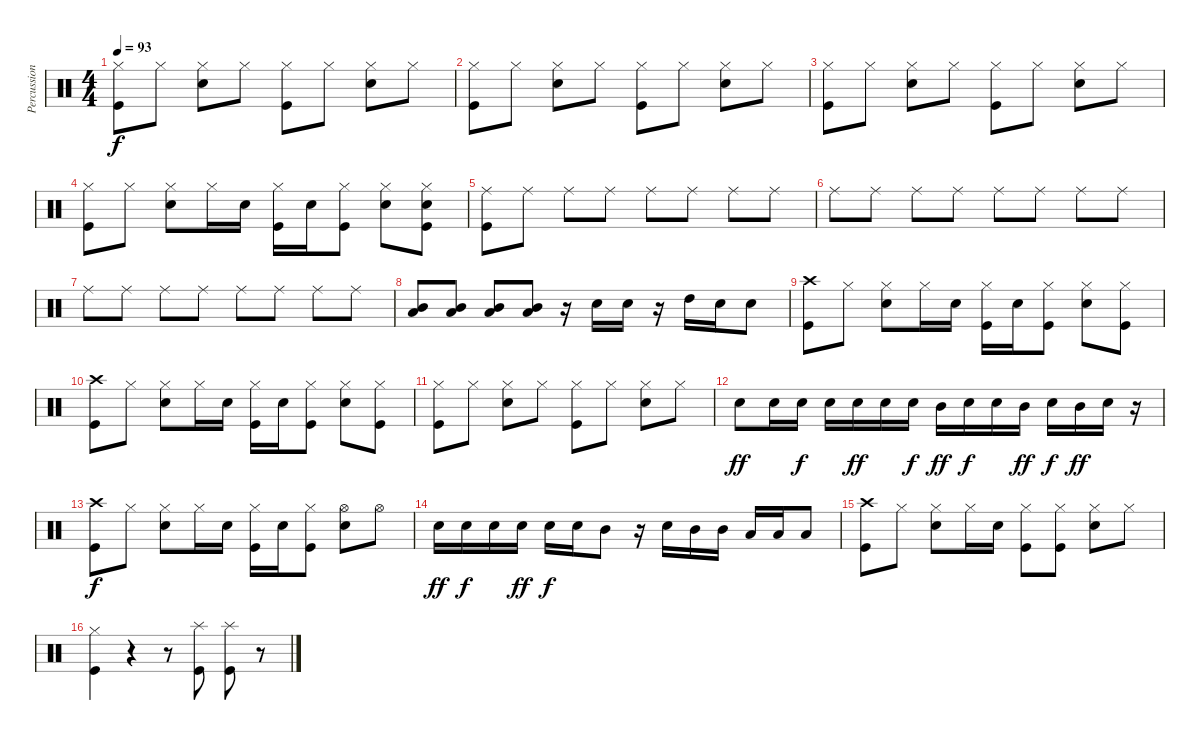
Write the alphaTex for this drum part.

\track ("Percussion" "Percussion") {instrument percussion}
\staff {score}
\articulation defaults
\ts (4 4)
\tempo 93
\clef neutral
\ks c
("Hi-Hat (closed)" "Kick (hit)").8{dy f} "Hi-Hat (closed)".8 ("Hi-Hat (closed)" "Snare (hit) 2").8 "Hi-Hat (closed)".8 ("Hi-Hat (closed)" "Kick (hit)").8 "Hi-Hat (closed)".8 ("Hi-Hat (closed)" "Snare (hit) 2").8 "Hi-Hat (closed)".8 |
("Hi-Hat (closed)" "Kick (hit)").8 "Hi-Hat (closed)".8 ("Hi-Hat (closed)" "Snare (hit) 2").8 "Hi-Hat (closed)".8 ("Hi-Hat (closed)" "Kick (hit)").8 "Hi-Hat (closed)".8 ("Hi-Hat (closed)" "Snare (hit) 2").8 "Hi-Hat (closed)".8 |
("Hi-Hat (closed)" "Kick (hit)").8 "Hi-Hat (closed)".8 ("Hi-Hat (closed)" "Snare (hit) 2").8 "Hi-Hat (closed)".8 ("Hi-Hat (closed)" "Kick (hit)").8 "Hi-Hat (closed)".8 ("Hi-Hat (closed)" "Snare (hit) 2").8 "Hi-Hat (closed)".8 |
("Hi-Hat (closed)" "Kick (hit)").8 "Hi-Hat (closed)".8 ("Hi-Hat (closed)" "Snare (hit) 2").8 "Hi-Hat (closed)".16 "Snare (hit) 2".16 ("Hi-Hat (closed)" "Kick (hit)").16 "Snare (hit) 2".16 ("Hi-Hat (closed)" "Kick (hit)").8 ("Hi-Hat (closed)" "Snare (hit) 2").8 ("Hi-Hat (closed)" "Snare (hit) 2" "Kick (hit)").8 |
("Ride (middle)" "Kick (hit)").8 "Ride (middle)".8 "Ride (middle)".8 "Ride (middle)".8 "Ride (middle)".8 "Ride (middle)".8 "Ride (middle)".8 "Ride (middle)".8 |
"Ride (middle)".8 "Ride (middle)".8 "Ride (middle)".8 "Ride (middle)".8 "Ride (middle)".8 "Ride (middle)".8 "Ride (middle)".8 "Ride (middle)".8 |
"Ride (middle)".8 "Ride (middle)".8 "Ride (middle)".8 "Ride (middle)".8 "Ride (middle)".8 "Ride (middle)".8 "Ride (middle)".8 "Ride (middle)".8 |
("Mid Tom (hit)" "Low Floor Tom (hit)").8 ("Mid Tom (hit)" "Low Floor Tom (hit)").8 ("Mid Tom (hit)" "Low Floor Tom (hit)").8 ("Mid Tom (hit)" "Low Floor Tom (hit)").8 r.16 "Snare (hit) 2".16 "Snare (hit) 2".16 r.16 "High Tom (hit)".16 "Snare (hit) 2".16 "Snare (hit) 2".8 |
("Crash high (hit)" "Kick (hit)").8 "Hi-Hat (closed)".8 ("Hi-Hat (closed)" "Snare (hit) 2").8 "Hi-Hat (closed)".16 "Snare (hit) 2".16 ("Hi-Hat (closed)" "Kick (hit)").16 "Snare (hit) 2".16 ("Hi-Hat (closed)" "Kick (hit)").8 ("Hi-Hat (closed)" "Snare (hit) 2").8 ("Hi-Hat (closed)" "Kick (hit)").8 |
("Crash high (hit)" "Kick (hit)").8 "Hi-Hat (closed)".8 ("Hi-Hat (closed)" "Snare (hit) 2").8 "Hi-Hat (closed)".16 "Snare (hit) 2".16 ("Hi-Hat (closed)" "Kick (hit)").16 "Snare (hit) 2".16 ("Hi-Hat (closed)" "Kick (hit)").8 ("Hi-Hat (closed)" "Snare (hit) 2").8 ("Hi-Hat (closed)" "Kick (hit)").8 |
("Hi-Hat (closed)" "Kick (hit)").8 "Hi-Hat (closed)".8 ("Hi-Hat (closed)" "Snare (hit) 2").8 "Hi-Hat (closed)".8 ("Hi-Hat (closed)" "Kick (hit)").8 "Hi-Hat (closed)".8 ("Hi-Hat (closed)" "Snare (hit) 2").8 "Hi-Hat (closed)".8 |
"Snare (hit) 2".8{dy ff} "Snare (hit) 2".16 "Snare (hit) 2".16{dy f} "Snare (hit) 2".16 "Snare (hit) 2".16{dy ff} "Snare (hit) 2".16 "Snare (hit) 2".16{dy f} "Mid Tom (hit)".16{dy ff} "Snare (hit) 2".16{dy f} "Snare (hit) 2".16 "Mid Tom (hit)".16{dy ff} "Snare (hit) 2".16{dy f} "Mid Tom (hit)".16{dy ff} "Snare (hit) 2".16 r.16 |
("Crash high (hit)" "Kick (hit)").8{dy f} "Hi-Hat (closed)".8 ("Hi-Hat (closed)" "Snare (hit) 2").8 "Hi-Hat (closed)".16 "Snare (hit) 2".16 ("Hi-Hat (closed)" "Kick (hit)").16 "Snare (hit) 2".16 ("Hi-Hat (closed)" "Kick (hit)").8 ("Hi-Hat (open)" "Snare (hit) 2").8 "Hi-Hat (open)".8 |
"Snare (hit) 2".16{dy ff} "Snare (hit) 2".16{dy f} "Snare (hit) 2".16 "Snare (hit) 2".16{dy ff} "Snare (hit) 2".16{dy f} "Snare (hit) 2".16 "Mid Tom (hit)".8 r.16 "Snare (hit) 2".16 "Mid Tom (hit)".16 "Mid Tom (hit)".16 "Low Floor Tom (hit)".16 "Low Floor Tom (hit)".16 "Low Floor Tom (hit)".8 |
("Crash high (hit)" "Kick (hit)").8 "Hi-Hat (closed)".8 ("Hi-Hat (closed)" "Snare (hit) 2").8 "Hi-Hat (closed)".16 "Snare (hit) 2".16 ("Hi-Hat (closed)" "Kick (hit)").8 ("Hi-Hat (closed)" "Kick (hit)").8 ("Hi-Hat (closed)" "Snare (hit) 2").8 "Hi-Hat (closed)".8 |
("Hi-Hat (closed)" "Kick (hit)").4 r.4 r.8 ("Splash (hit)" "Kick (hit)").8 ("Splash (hit)" "Kick (hit)").8 r.8
